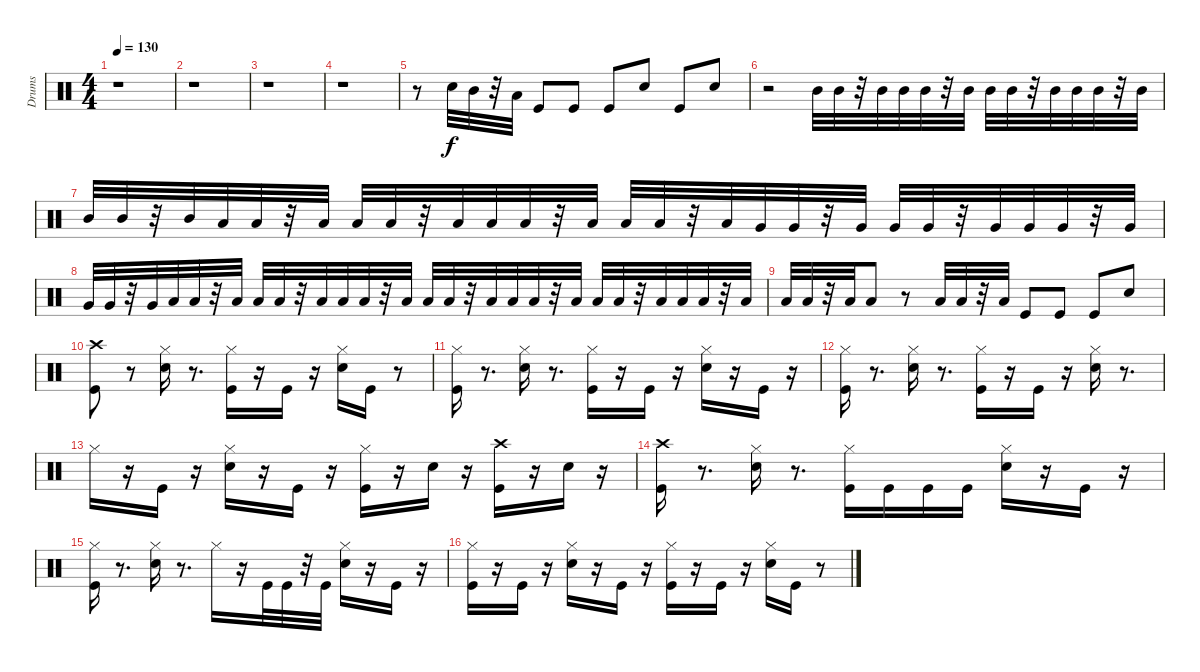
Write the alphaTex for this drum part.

\track ("Drums" "Drums") {instrument percussion}
\staff {score}
\articulation defaults
\ts (4 4)
\tempo 130
\clef neutral
\ks c
r.1{dy f} |
r.1 |
r.1 |
r.1 |
r.8 "Snare (hit) 2".32 "Mid Tom (hit)".32 r.32 "Low Tom (hit)".32 "Kick (hit)".8 "Kick (hit)".8 "Kick (hit)".8 "Snare (hit) 2".8 "Kick (hit)".8 "Snare (hit) 2".8 |
r.2 "Mid Tom (hit)".32 "Mid Tom (hit)".32 r.32 "Mid Tom (hit)".32 "Mid Tom (hit)".32 "Mid Tom (hit)".32 r.32 "Mid Tom (hit)".32 "Mid Tom (hit)".32 "Mid Tom (hit)".32 r.32 "Mid Tom (hit)".32 "Mid Tom (hit)".32 "Mid Tom (hit)".32 r.32 "Mid Tom (hit)".32 |
"Mid Tom (hit)".32 "Mid Tom (hit)".32 r.32 "Mid Tom (hit)".32 "Low Tom (hit)".32 "Low Tom (hit)".32 r.32 "Low Tom (hit)".32 "Low Tom (hit)".32 "Low Tom (hit)".32 r.32 "Low Tom (hit)".32 "Low Tom (hit)".32 "Low Tom (hit)".32 r.32 "Low Tom (hit)".32 "Low Tom (hit)".32 "Low Tom (hit)".32 r.32 "Low Tom (hit)".32 "Very Low Tom (hit)".32 "Very Low Tom (hit)".32 r.32 "Very Low Tom (hit)".32 "Very Low Tom (hit)".32 "Very Low Tom (hit)".32 r.32 "Very Low Tom (hit)".32 "Very Low Tom (hit)".32 "Very Low Tom (hit)".32 r.32 "Very Low Tom (hit)".32 |
"Very Low Tom (hit)".32 "Very Low Tom (hit)".32 r.32 "Very Low Tom (hit)".32 "Low Floor Tom (hit)".32 "Low Floor Tom (hit)".32 r.32 "Low Floor Tom (hit)".32 "Low Floor Tom (hit)".32 "Low Floor Tom (hit)".32 r.32 "Low Floor Tom (hit)".32 "Low Floor Tom (hit)".32 "Low Floor Tom (hit)".32 r.32 "Low Floor Tom (hit)".32 "Low Floor Tom (hit)".32 "Low Floor Tom (hit)".32 r.32 "Low Floor Tom (hit)".32 "Low Floor Tom (hit)".32 "Low Floor Tom (hit)".32 r.32 "Low Floor Tom (hit)".32 "Low Floor Tom (hit)".32 "Low Floor Tom (hit)".32 r.32 "Low Floor Tom (hit)".32 "Low Floor Tom (hit)".32 "Low Floor Tom (hit)".32 r.32 "Low Floor Tom (hit)".32 |
"Low Floor Tom (hit)".32 "Low Floor Tom (hit)".32 r.32 "Low Floor Tom (hit)".32 "Low Floor Tom (hit)".8 r.8 "Low Floor Tom (hit)".32 "Low Floor Tom (hit)".32 r.32 "Low Floor Tom (hit)".32 "Kick (hit)".8 "Kick (hit)".8 "Kick (hit)".8 "Snare (hit) 2".8 |
("Crash high (hit)" "Kick (hit)").8 r.8 ("Hi-Hat (closed)" "Snare (hit) 2").16 r.8{d} ("Kick (hit)" "Hi-Hat (closed)").16 r.16 "Kick (hit)".16 r.16 ("Hi-Hat (closed)" "Snare (hit) 2").16 "Kick (hit)".16 r.8 |
("Hi-Hat (closed)" "Kick (hit)").16 r.8{d} ("Snare (hit) 2" "Hi-Hat (closed)").16 r.8{d} ("Kick (hit)" "Hi-Hat (closed)").16 r.16 "Kick (hit)".16 r.16 ("Hi-Hat (closed)" "Snare (hit) 2").16 r.16 "Kick (hit)".16 r.16 |
("Hi-Hat (closed)" "Kick (hit)").16 r.8{d} ("Snare (hit) 2" "Hi-Hat (closed)").16 r.8{d} ("Kick (hit)" "Hi-Hat (closed)").16 r.16 "Kick (hit)".16 r.16 ("Hi-Hat (closed)" "Snare (hit) 2").16 r.8{d} |
"Hi-Hat (closed)".16 r.16 "Kick (hit)".16 r.16 ("Hi-Hat (closed)" "Snare (hit) 2").16 r.16 "Kick (hit)".16 r.16 ("Hi-Hat (closed)" "Kick (hit)").16 r.16 "Snare (hit) 2".16 r.16 ("Crash high (hit)" "Kick (hit)").16 r.16 "Snare (hit) 2".16 r.16 |
("Crash high (hit)" "Kick (hit)").16 r.8{d} ("Hi-Hat (closed)" "Snare (hit) 2").16 r.8{d} ("Kick (hit)" "Hi-Hat (closed)").16 "Kick (hit)".16 "Kick (hit)".16 "Kick (hit)".16 ("Hi-Hat (closed)" "Snare (hit) 2").16 r.16 "Kick (hit)".16 r.16 |
("Hi-Hat (closed)" "Kick (hit)").16 r.8{d} ("Snare (hit) 2" "Hi-Hat (closed)").16 r.8{d} "Hi-Hat (closed)".16 r.16 "Kick (hit)".32 "Kick (hit)".32 r.32 "Kick (hit)".32 ("Hi-Hat (closed)" "Snare (hit) 2").16 r.16 "Kick (hit)".16 r.16 |
("Hi-Hat (closed)" "Kick (hit)").16 r.16 "Kick (hit)".16 r.16 ("Snare (hit) 2" "Hi-Hat (closed)").16 r.16 "Kick (hit)".16 r.16 ("Hi-Hat (closed)" "Kick (hit)").16 r.16 "Kick (hit)".16 r.16 ("Snare (hit) 2" "Hi-Hat (closed)").16 "Kick (hit)".16 r.8
